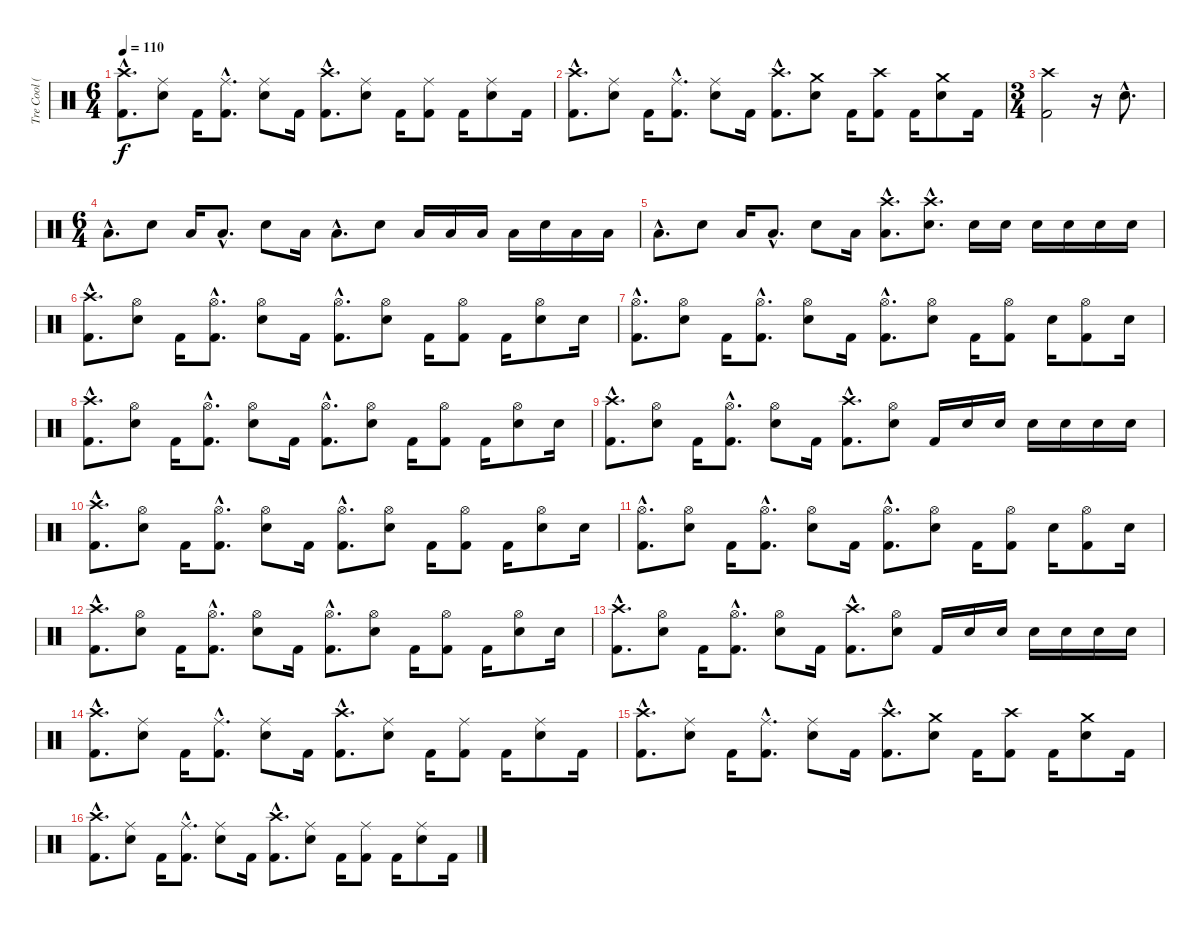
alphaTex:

\track ("Tre Cool (Drums)" "Tre Cool (") {instrument percussion}
\staff {score}
\articulation defaults
\ts (6 4)
\tempo 110
\clef neutral
\ks c
("Crash high (hit)"{hac} "Kick (hit) 2"{hac}).8{d dy f} ("Ride (middle)" "Electric Snare (hit)").8 "Kick (hit) 2".16 ("Ride (middle)"{hac} "Kick (hit) 2"{hac}).8{d} ("Ride (middle)" "Electric Snare (hit)").8 "Kick (hit) 2".16 ("Crash high (hit)"{hac} "Kick (hit) 2"{hac}).8{d} ("Ride (middle)" "Electric Snare (hit)").8 "Kick (hit) 2".16 ("Ride (middle)" "Kick (hit) 2").8 "Kick (hit) 2".16 ("Ride (middle)" "Electric Snare (hit)").8 "Kick (hit) 2".16 |
("Crash high (hit)"{hac} "Kick (hit) 2"{hac}).8{d} ("Ride (middle)" "Electric Snare (hit)").8 "Kick (hit) 2".16 ("Ride (middle)"{hac} "Kick (hit) 2"{hac}).8{d} ("Ride (middle)" "Electric Snare (hit)").8 "Kick (hit) 2".16 ("Crash high (hit)"{hac} "Kick (hit) 2"{hac}).8{d} ("Crash medium (hit)" "Electric Snare (hit)").8 "Kick (hit) 2".16 ("Crash high (hit)" "Kick (hit) 2").8 "Kick (hit) 2".16 ("Crash medium (hit)" "Electric Snare (hit)").8 "Kick (hit) 2".16 |
\ts (3 4)
("Crash high (hit)" "Kick (hit) 2").2 r.16 "Electric Snare (hit)"{hac}.8{d} |
\ts (6 4)
"Low Floor Tom (hit)"{hac}.8{d} "Electric Snare (hit)".8 "Low Floor Tom (hit)".16 "Low Floor Tom (hit)"{hac}.8{d} "Electric Snare (hit)".8 "Low Floor Tom (hit)".16 "Low Floor Tom (hit)"{hac}.8{d} "Electric Snare (hit)".8 "Low Floor Tom (hit)".16 "Low Floor Tom (hit)".16 "Low Floor Tom (hit)".16 "Low Floor Tom (hit)".16 "Electric Snare (hit)".16 "Low Floor Tom (hit)".16 "Low Floor Tom (hit)".16 |
"Low Floor Tom (hit)"{hac}.8{d} "Electric Snare (hit)".8 "Low Floor Tom (hit)".16 "Low Floor Tom (hit)"{hac}.8{d} "Electric Snare (hit)".8 "Low Floor Tom (hit)".16 ("Crash high (hit)"{hac} "Low Floor Tom (hit)"{hac}).8{d} ("Crash high (hit)"{hac} "Electric Snare (hit)"{hac}).8{d} "Electric Snare (hit)".16 "Electric Snare (hit)".16 "Electric Snare (hit)".16 "Electric Snare (hit)".16 "Electric Snare (hit)".16 "Electric Snare (hit)".16 |
("Crash high (hit)"{hac} "Kick (hit) 2"{hac}).8{d} ("Hi-Hat (open)" "Electric Snare (hit)").8 "Kick (hit) 2".16 ("Hi-Hat (open)"{hac} "Kick (hit) 2"{hac}).8{d} ("Hi-Hat (open)" "Electric Snare (hit)").8 "Kick (hit) 2".16 ("Hi-Hat (open)"{hac} "Kick (hit) 2"{hac}).8{d} ("Hi-Hat (open)" "Electric Snare (hit)").8 "Kick (hit) 2".16 ("Hi-Hat (open)" "Kick (hit) 2").8 "Kick (hit) 2".16 ("Hi-Hat (open)" "Electric Snare (hit)").8 "Electric Snare (hit)".16 |
("Hi-Hat (open)"{hac} "Kick (hit) 2"{hac}).8{d} ("Hi-Hat (open)" "Electric Snare (hit)").8 "Kick (hit) 2".16 ("Hi-Hat (open)"{hac} "Kick (hit) 2"{hac}).8{d} ("Hi-Hat (open)" "Electric Snare (hit)").8 "Kick (hit) 2".16 ("Hi-Hat (open)"{hac} "Kick (hit) 2"{hac}).8{d} ("Hi-Hat (open)" "Electric Snare (hit)").8 "Kick (hit) 2".16 ("Hi-Hat (open)" "Kick (hit) 2").8 "Electric Snare (hit)".16 ("Hi-Hat (open)" "Kick (hit) 2").8 "Electric Snare (hit)".16 |
("Crash high (hit)"{hac} "Kick (hit) 2"{hac}).8{d} ("Hi-Hat (open)" "Electric Snare (hit)").8 "Kick (hit) 2".16 ("Hi-Hat (open)"{hac} "Kick (hit) 2"{hac}).8{d} ("Hi-Hat (open)" "Electric Snare (hit)").8 "Kick (hit) 2".16 ("Hi-Hat (open)"{hac} "Kick (hit) 2"{hac}).8{d} ("Hi-Hat (open)" "Electric Snare (hit)").8 "Kick (hit) 2".16 ("Hi-Hat (open)" "Kick (hit) 2").8 "Kick (hit) 2".16 ("Hi-Hat (open)" "Electric Snare (hit)").8 "Electric Snare (hit)".16 |
("Crash high (hit)"{hac} "Kick (hit) 2"{hac}).8{d} ("Hi-Hat (open)" "Electric Snare (hit)").8 "Kick (hit) 2".16 ("Hi-Hat (open)"{hac} "Kick (hit) 2"{hac}).8{d} ("Hi-Hat (open)" "Electric Snare (hit)").8 "Kick (hit) 2".16 ("Crash high (hit)"{hac} "Kick (hit) 2"{hac}).8{d} ("Hi-Hat (open)" "Electric Snare (hit)").8 "Kick (hit) 2".16 "Electric Snare (hit)".16 "Electric Snare (hit)".16 "Electric Snare (hit)".16 "Electric Snare (hit)".16 "Electric Snare (hit)".16 "Electric Snare (hit)".16 |
("Crash high (hit)"{hac} "Kick (hit) 2"{hac}).8{d} ("Hi-Hat (open)" "Electric Snare (hit)").8 "Kick (hit) 2".16 ("Hi-Hat (open)"{hac} "Kick (hit) 2"{hac}).8{d} ("Hi-Hat (open)" "Electric Snare (hit)").8 "Kick (hit) 2".16 ("Hi-Hat (open)"{hac} "Kick (hit) 2"{hac}).8{d} ("Hi-Hat (open)" "Electric Snare (hit)").8 "Kick (hit) 2".16 ("Hi-Hat (open)" "Kick (hit) 2").8 "Kick (hit) 2".16 ("Hi-Hat (open)" "Electric Snare (hit)").8 "Electric Snare (hit)".16 |
("Hi-Hat (open)"{hac} "Kick (hit) 2"{hac}).8{d} ("Hi-Hat (open)" "Electric Snare (hit)").8 "Kick (hit) 2".16 ("Hi-Hat (open)"{hac} "Kick (hit) 2"{hac}).8{d} ("Hi-Hat (open)" "Electric Snare (hit)").8 "Kick (hit) 2".16 ("Hi-Hat (open)"{hac} "Kick (hit) 2"{hac}).8{d} ("Hi-Hat (open)" "Electric Snare (hit)").8 "Kick (hit) 2".16 ("Hi-Hat (open)" "Kick (hit) 2").8 "Electric Snare (hit)".16 ("Hi-Hat (open)" "Kick (hit) 2").8 "Electric Snare (hit)".16 |
("Crash high (hit)"{hac} "Kick (hit) 2"{hac}).8{d} ("Hi-Hat (open)" "Electric Snare (hit)").8 "Kick (hit) 2".16 ("Hi-Hat (open)"{hac} "Kick (hit) 2"{hac}).8{d} ("Hi-Hat (open)" "Electric Snare (hit)").8 "Kick (hit) 2".16 ("Hi-Hat (open)"{hac} "Kick (hit) 2"{hac}).8{d} ("Hi-Hat (open)" "Electric Snare (hit)").8 "Kick (hit) 2".16 ("Hi-Hat (open)" "Kick (hit) 2").8 "Kick (hit) 2".16 ("Hi-Hat (open)" "Electric Snare (hit)").8 "Electric Snare (hit)".16 |
("Crash high (hit)"{hac} "Kick (hit) 2"{hac}).8{d} ("Hi-Hat (open)" "Electric Snare (hit)").8 "Kick (hit) 2".16 ("Hi-Hat (open)"{hac} "Kick (hit) 2"{hac}).8{d} ("Hi-Hat (open)" "Electric Snare (hit)").8 "Kick (hit) 2".16 ("Crash high (hit)"{hac} "Kick (hit) 2"{hac}).8{d} ("Hi-Hat (open)" "Electric Snare (hit)").8 "Kick (hit) 2".16 "Electric Snare (hit)".16 "Electric Snare (hit)".16 "Electric Snare (hit)".16 "Electric Snare (hit)".16 "Electric Snare (hit)".16 "Electric Snare (hit)".16 |
("Crash high (hit)"{hac} "Kick (hit) 2"{hac}).8{d} ("Ride (middle)" "Electric Snare (hit)").8 "Kick (hit) 2".16 ("Ride (middle)"{hac} "Kick (hit) 2"{hac}).8{d} ("Ride (middle)" "Electric Snare (hit)").8 "Kick (hit) 2".16 ("Crash high (hit)"{hac} "Kick (hit) 2"{hac}).8{d} ("Ride (middle)" "Electric Snare (hit)").8 "Kick (hit) 2".16 ("Ride (middle)" "Kick (hit) 2").8 "Kick (hit) 2".16 ("Ride (middle)" "Electric Snare (hit)").8 "Kick (hit) 2".16 |
("Crash high (hit)"{hac} "Kick (hit) 2"{hac}).8{d} ("Ride (middle)" "Electric Snare (hit)").8 "Kick (hit) 2".16 ("Ride (middle)"{hac} "Kick (hit) 2"{hac}).8{d} ("Ride (middle)" "Electric Snare (hit)").8 "Kick (hit) 2".16 ("Crash high (hit)"{hac} "Kick (hit) 2"{hac}).8{d} ("Crash medium (hit)" "Electric Snare (hit)").8 "Kick (hit) 2".16 ("Crash high (hit)" "Kick (hit) 2").8 "Kick (hit) 2".16 ("Crash medium (hit)" "Electric Snare (hit)").8 "Kick (hit) 2".16 |
("Crash high (hit)"{hac} "Kick (hit) 2"{hac}).8{d} ("Ride (middle)" "Electric Snare (hit)").8 "Kick (hit) 2".16 ("Ride (middle)"{hac} "Kick (hit) 2"{hac}).8{d} ("Ride (middle)" "Electric Snare (hit)").8 "Kick (hit) 2".16 ("Crash high (hit)"{hac} "Kick (hit) 2"{hac}).8{d} ("Ride (middle)" "Electric Snare (hit)").8 "Kick (hit) 2".16 ("Ride (middle)" "Kick (hit) 2").8 "Kick (hit) 2".16 ("Ride (middle)" "Electric Snare (hit)").8 "Kick (hit) 2".16
